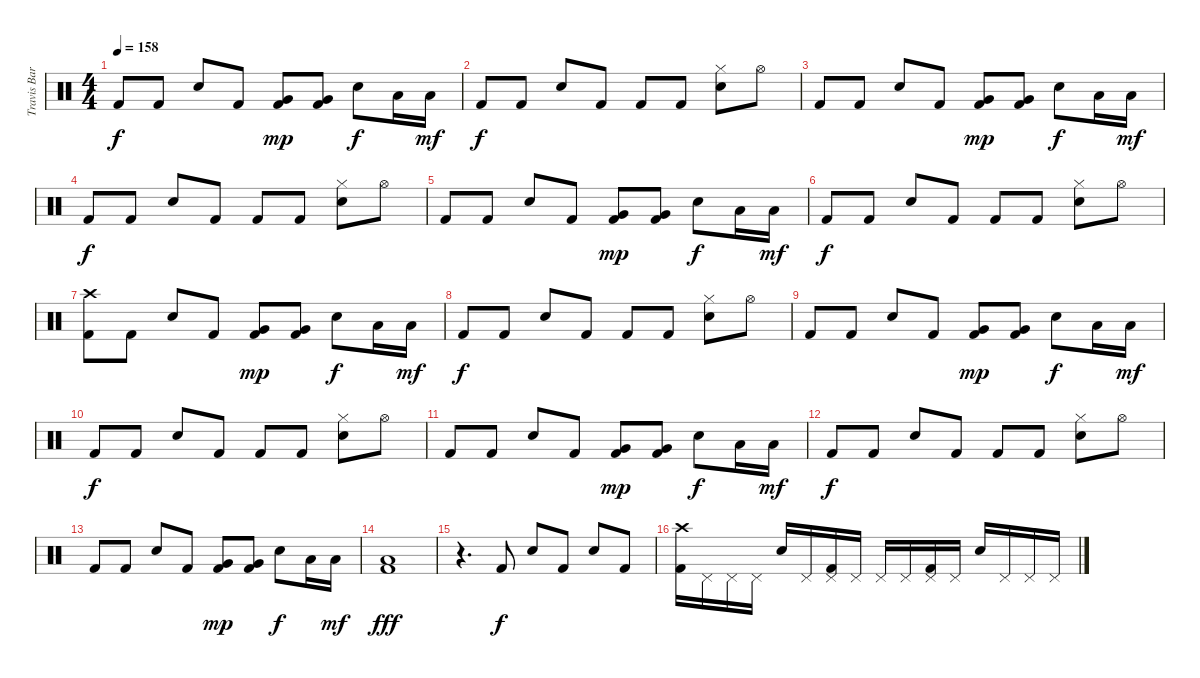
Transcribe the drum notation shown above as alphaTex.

\track ("Travis Barker - Drums" "Travis Bar") {instrument percussion}
\staff {score}
\articulation defaults
\ts (4 4)
\tempo 158
\clef neutral
\ks c "Kick (hit) 2".8{dy f} "Kick (hit) 2".8 "Electric Snare (hit)".8 "Kick (hit) 2".8
("Very Low Tom (hit)" "Kick (hit) 2").8{dy mp} ("Very Low Tom (hit)" "Kick (hit) 2").8 "Electric Snare (hit)".8{dy f} "Low Tom (hit)".16 "Low Tom (hit)".16{dy mf} |
"Kick (hit) 2".8{dy f} "Kick (hit) 2".8 "Electric Snare (hit)".8 "Kick (hit) 2".8 "Kick (hit) 2".8 "Kick (hit) 2".8 ("Hi-Hat (closed)" "Electric Snare (hit)").8 "Hi-Hat (open)".8 |
"Kick (hit) 2".8 "Kick (hit) 2".8 "Electric Snare (hit)".8 "Kick (hit) 2".8 ("Very Low Tom (hit)" "Kick (hit) 2").8{dy mp} ("Very Low Tom (hit)" "Kick (hit) 2").8 "Electric Snare (hit)".8{dy f} "Low Tom (hit)".16 "Low Tom (hit)".16{dy mf} |
"Kick (hit) 2".8{dy f} "Kick (hit) 2".8 "Electric Snare (hit)".8 "Kick (hit) 2".8 "Kick (hit) 2".8 "Kick (hit) 2".8 ("Hi-Hat (closed)" "Electric Snare (hit)").8 "Hi-Hat (open)".8 |
"Kick (hit) 2".8 "Kick (hit) 2".8 "Electric Snare (hit)".8 "Kick (hit) 2".8 ("Very Low Tom (hit)" "Kick (hit) 2").8{dy mp} ("Very Low Tom (hit)" "Kick (hit) 2").8 "Electric Snare (hit)".8{dy f} "Low Tom (hit)".16 "Low Tom (hit)".16{dy mf} |
"Kick (hit) 2".8{dy f} "Kick (hit) 2".8 "Electric Snare (hit)".8 "Kick (hit) 2".8 "Kick (hit) 2".8 "Kick (hit) 2".8 ("Hi-Hat (closed)" "Electric Snare (hit)").8 "Hi-Hat (open)".8 |
("Crash high (hit)" "Kick (hit) 2").8 "Kick (hit) 2".8 "Electric Snare (hit)".8 "Kick (hit) 2".8 ("Very Low Tom (hit)" "Kick (hit) 2").8{dy mp} ("Very Low Tom (hit)" "Kick (hit) 2").8 "Electric Snare (hit)".8{dy f} "Low Tom (hit)".16 "Low Tom (hit)".16{dy mf} |
"Kick (hit) 2".8{dy f} "Kick (hit) 2".8 "Electric Snare (hit)".8 "Kick (hit) 2".8 "Kick (hit) 2".8 "Kick (hit) 2".8 ("Hi-Hat (closed)" "Electric Snare (hit)").8 "Hi-Hat (open)".8 |
"Kick (hit) 2".8 "Kick (hit) 2".8 "Electric Snare (hit)".8 "Kick (hit) 2".8 ("Very Low Tom (hit)" "Kick (hit) 2").8{dy mp} ("Very Low Tom (hit)" "Kick (hit) 2").8 "Electric Snare (hit)".8{dy f} "Low Tom (hit)".16 "Low Tom (hit)".16{dy mf} |
"Kick (hit) 2".8{dy f} "Kick (hit) 2".8 "Electric Snare (hit)".8 "Kick (hit) 2".8 "Kick (hit) 2".8 "Kick (hit) 2".8 ("Hi-Hat (closed)" "Electric Snare (hit)").8 "Hi-Hat (open)".8 |
"Kick (hit) 2".8 "Kick (hit) 2".8 "Electric Snare (hit)".8 "Kick (hit) 2".8 ("Very Low Tom (hit)" "Kick (hit) 2").8{dy mp} ("Very Low Tom (hit)" "Kick (hit) 2").8 "Electric Snare (hit)".8{dy f} "Low Tom (hit)".16 "Low Tom (hit)".16{dy mf} |
"Kick (hit) 2".8{dy f} "Kick (hit) 2".8 "Electric Snare (hit)".8 "Kick (hit) 2".8 "Kick (hit) 2".8 "Kick (hit) 2".8 ("Hi-Hat (closed)" "Electric Snare (hit)").8 "Hi-Hat (open)".8 |
"Kick (hit) 2".8 "Kick (hit) 2".8 "Electric Snare (hit)".8 "Kick (hit) 2".8 ("Very Low Tom (hit)" "Kick (hit) 2").8{dy mp} ("Very Low Tom (hit)" "Kick (hit) 2").8 "Electric Snare (hit)".8{dy f} "Low Tom (hit)".16 "Low Tom (hit)".16{dy mf} |
("Low Tom (hit)" "Kick (hit) 2").1{dy fff} |
r.4{d} "Kick (hit) 2".8{dy f} "Electric Snare (hit)".8 "Kick (hit) 2".8 "Electric Snare (hit)".8 "Kick (hit) 2".8 |
("Crash high (hit)" "Kick (hit) 2").16 "Pedal Hi-Hat (hit)".16 "Pedal Hi-Hat (hit)".16 "Pedal Hi-Hat (hit)".16 "Electric Snare (hit)".16 "Pedal Hi-Hat (hit)".16 ("Pedal Hi-Hat (hit)" "Kick (hit) 2").16 "Pedal Hi-Hat (hit)".16 "Pedal Hi-Hat (hit)".16 "Pedal Hi-Hat (hit)".16 ("Pedal Hi-Hat (hit)" "Kick (hit) 2").16 "Pedal Hi-Hat (hit)".16 "Electric Snare (hit)".16 "Pedal Hi-Hat (hit)".16 "Pedal Hi-Hat (hit)".16 "Pedal Hi-Hat (hit)".16
